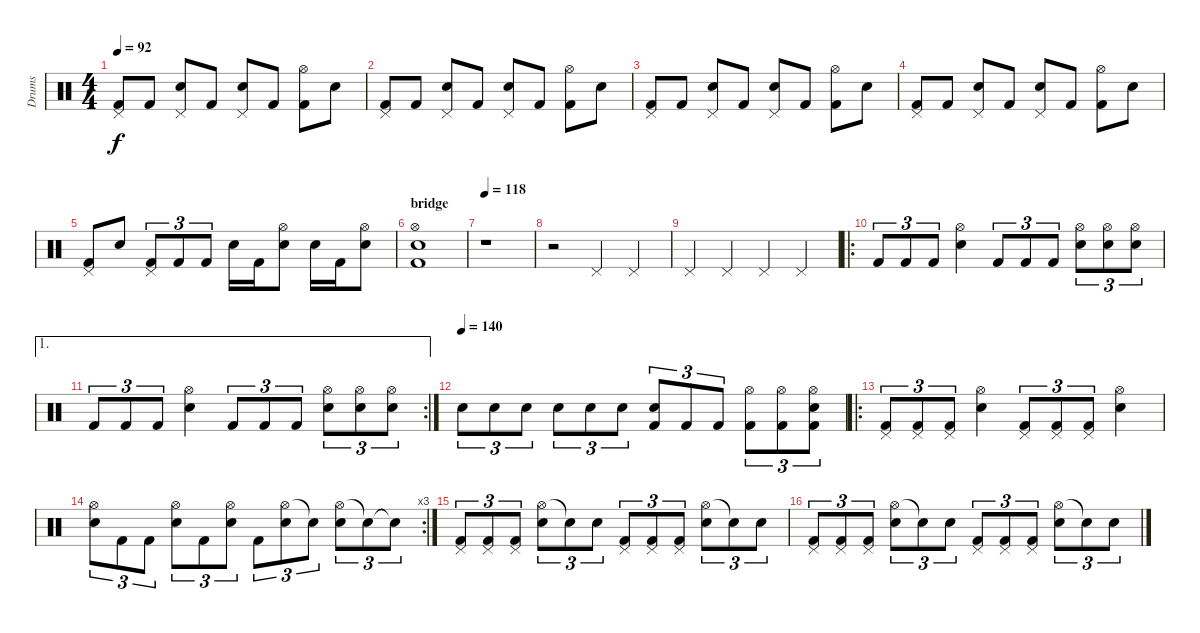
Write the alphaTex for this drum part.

\track ("Drums" "Drums") {instrument percussion}
\staff {score}
\articulation defaults
\ts (4 4)
\tempo 92
\clef neutral
\ks c
("Pedal Hi-Hat (hit)" "Kick (hit) 2").8{dy f} "Kick (hit) 2".8 ("Pedal Hi-Hat (hit)" "Snare (hit) 2").8 "Kick (hit) 2".8 ("Pedal Hi-Hat (hit)" "Snare (hit) 2").8 "Kick (hit) 2".8 ("Hi-Hat (open)" "Kick (hit) 2").8 "Snare (hit) 2".8 |
("Pedal Hi-Hat (hit)" "Kick (hit) 2").8 "Kick (hit) 2".8 ("Pedal Hi-Hat (hit)" "Snare (hit) 2").8 "Kick (hit) 2".8 ("Pedal Hi-Hat (hit)" "Snare (hit) 2").8 "Kick (hit) 2".8 ("Hi-Hat (open)" "Kick (hit) 2").8 "Snare (hit) 2".8 |
("Pedal Hi-Hat (hit)" "Kick (hit) 2").8 "Kick (hit) 2".8 ("Pedal Hi-Hat (hit)" "Snare (hit) 2").8 "Kick (hit) 2".8 ("Pedal Hi-Hat (hit)" "Snare (hit) 2").8 "Kick (hit) 2".8 ("Hi-Hat (open)" "Kick (hit) 2").8 "Snare (hit) 2".8 |
("Pedal Hi-Hat (hit)" "Kick (hit) 2").8 "Kick (hit) 2".8 ("Pedal Hi-Hat (hit)" "Snare (hit) 2").8 "Kick (hit) 2".8 ("Pedal Hi-Hat (hit)" "Snare (hit) 2").8 "Kick (hit) 2".8 ("Hi-Hat (open)" "Kick (hit) 2").8 "Snare (hit) 2".8 |
("Pedal Hi-Hat (hit)" "Kick (hit) 2").8 "Snare (hit) 2".8 ("Pedal Hi-Hat (hit)" "Kick (hit) 2").8{tu (3 2)} "Kick (hit) 2".8{tu (3 2)} "Kick (hit) 2".8{tu (3 2)} "Snare (hit) 2".16 "Kick (hit) 2".16 ("Hi-Hat (open)" "Snare (hit) 2").8 "Snare (hit) 2".16 "Kick (hit) 2".16 ("Hi-Hat (open)" "Snare (hit) 2").8 |
\section ("" "bridge")
("Hi-Hat (open)" "Snare (hit) 2" "Kick (hit) 2").1 |
\tempo 118
r.1 |
r.2 "Pedal Hi-Hat (hit)".4 "Pedal Hi-Hat (hit)".4 |
"Pedal Hi-Hat (hit)".4 "Pedal Hi-Hat (hit)".4 "Pedal Hi-Hat (hit)".4 "Pedal Hi-Hat (hit)".4 |
\ro "Kick (hit) 2".8{tu (3 2)} "Kick (hit) 2".8{tu (3 2)} "Kick (hit) 2".8{tu (3 2)}
("Hi-Hat (open)" "Snare (hit) 2").4 "Kick (hit) 2".8{tu (3 2)} "Kick (hit) 2".8{tu (3 2)} "Kick (hit) 2".8{tu (3 2)} ("Hi-Hat (open)" "Snare (hit) 2").8{tu (3 2)} ("Hi-Hat (open)" "Snare (hit) 2").8{tu (3 2)} ("Hi-Hat (open)" "Snare (hit) 2").8{tu (3 2)} |
\ae 1
\rc 2 "Kick (hit) 2".8{tu (3 2)} "Kick (hit) 2".8{tu (3 2)} "Kick (hit) 2".8{tu (3 2)}
("Hi-Hat (open)" "Snare (hit) 2").4 "Kick (hit) 2".8{tu (3 2)} "Kick (hit) 2".8{tu (3 2)} "Kick (hit) 2".8{tu (3 2)} ("Hi-Hat (open)" "Snare (hit) 2").8{tu (3 2)} ("Hi-Hat (open)" "Snare (hit) 2").8{tu (3 2)} ("Hi-Hat (open)" "Snare (hit) 2").8{tu (3 2)} |
\tempo (140)
"Snare (hit) 2".8{tu (3 2)} "Snare (hit) 2".8{tu (3 2)} "Snare (hit) 2".8{tu (3 2)} "Snare (hit) 2".8{tu (3 2)} "Snare (hit) 2".8{tu (3 2)} "Snare (hit) 2".8{tu (3 2)} ("Snare (hit) 2" "Kick (hit) 2").8{tu (3 2)} "Kick (hit) 2".8{tu (3 2)} "Kick (hit) 2".8{tu (3 2)} ("Hi-Hat (open)" "Kick (hit) 2").8{tu (3 2)} ("Hi-Hat (open)" "Kick (hit) 2").8{tu (3 2)} ("Hi-Hat (open)" "Snare (hit) 2" "Kick (hit) 2").8{tu (3 2)} |
\ro
("Pedal Hi-Hat (hit)" "Kick (hit) 2").8{tu (3 2)} ("Pedal Hi-Hat (hit)" "Kick (hit) 2").8{tu (3 2)} ("Pedal Hi-Hat (hit)" "Kick (hit) 2").8{tu (3 2)} ("Hi-Hat (open)" "Snare (hit) 2").4 ("Pedal Hi-Hat (hit)" "Kick (hit) 2").8{tu (3 2)} ("Pedal Hi-Hat (hit)" "Kick (hit) 2").8{tu (3 2)} ("Pedal Hi-Hat (hit)" "Kick (hit) 2").8{tu (3 2)} ("Hi-Hat (open)" "Snare (hit) 2").4 |
\rc 3
("Hi-Hat (open)" "Snare (hit) 2").8{tu (3 2)} "Kick (hit) 2".8{tu (3 2)} "Kick (hit) 2".8{tu (3 2)} ("Hi-Hat (open)" "Snare (hit) 2").8{tu (3 2)} "Kick (hit) 2".8{tu (3 2)} ("Hi-Hat (open)" "Snare (hit) 2").8{tu (3 2)} "Kick (hit) 2".8{tu (3 2)} ("Hi-Hat (open)" "Snare (hit) 2").8{tu (3 2)} "Snare (hit)"{t}.8{tu (3 2)} ("Hi-Hat (open)" "Snare (hit) 2").8{tu (3 2)} "Snare (hit)"{t}.8{tu (3 2)} "Snare (hit)"{t}.8{tu (3 2)} |
("Pedal Hi-Hat (hit)" "Kick (hit) 2").8{tu (3 2)} ("Pedal Hi-Hat (hit)" "Kick (hit) 2").8{tu (3 2)} ("Pedal Hi-Hat (hit)" "Kick (hit) 2").8{tu (3 2)} ("Hi-Hat (open)" "Snare (hit) 2").8{tu (3 2)} "Snare (hit)"{t}.8{tu (3 2)} "Snare (hit) 2".8{tu (3 2)} ("Pedal Hi-Hat (hit)" "Kick (hit) 2").8{tu (3 2)} ("Pedal Hi-Hat (hit)" "Kick (hit) 2").8{tu (3 2)} ("Pedal Hi-Hat (hit)" "Kick (hit) 2").8{tu (3 2)} ("Hi-Hat (open)" "Snare (hit) 2").8{tu (3 2)} "Snare (hit)"{t}.8{tu (3 2)} "Snare (hit) 2".8{tu (3 2)} |
("Pedal Hi-Hat (hit)" "Kick (hit) 2").8{tu (3 2)} ("Pedal Hi-Hat (hit)" "Kick (hit) 2").8{tu (3 2)} ("Pedal Hi-Hat (hit)" "Kick (hit) 2").8{tu (3 2)} ("Hi-Hat (open)" "Snare (hit) 2").8{tu (3 2)} "Snare (hit)"{t}.8{tu (3 2)} "Snare (hit) 2".8{tu (3 2)} ("Pedal Hi-Hat (hit)" "Kick (hit) 2").8{tu (3 2)} ("Pedal Hi-Hat (hit)" "Kick (hit) 2").8{tu (3 2)} ("Pedal Hi-Hat (hit)" "Kick (hit) 2").8{tu (3 2)} ("Hi-Hat (open)" "Snare (hit) 2").8{tu (3 2)} "Snare (hit)"{t}.8{tu (3 2)} "Snare (hit) 2".8{tu (3 2)}
